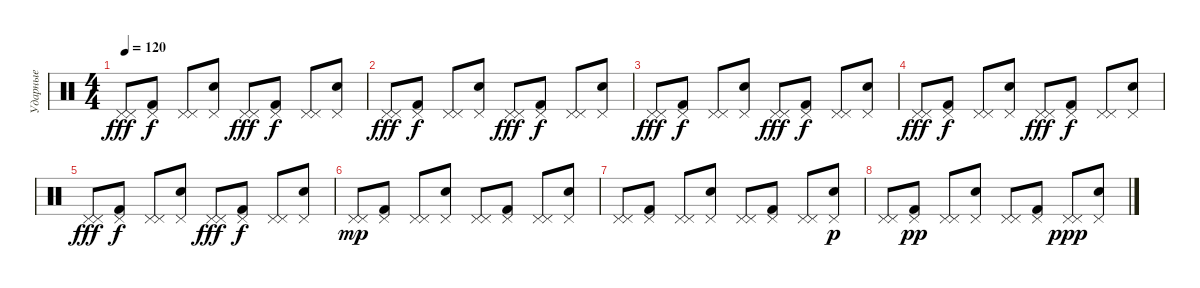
\track ("Ударные" "Ударные") {instrument percussion}
\staff {score}
\articulation defaults
\ts (4 4)
\tempo 120
\clef neutral
\ks c
("Pedal Hi-Hat (hit)" "Pedal Hi-Hat (hit)").8{dy fff} ("Pedal Hi-Hat (hit)" "Kick (hit) 2").8{dy f} ("Pedal Hi-Hat (hit)" "Pedal Hi-Hat (hit)").8 ("Pedal Hi-Hat (hit)" "Hand Clap (hit)").8 ("Pedal Hi-Hat (hit)" "Pedal Hi-Hat (hit)").8{dy fff} ("Pedal Hi-Hat (hit)" "Kick (hit) 2").8{dy f} ("Pedal Hi-Hat (hit)" "Pedal Hi-Hat (hit)").8 ("Pedal Hi-Hat (hit)" "Hand Clap (hit)").8 |
("Pedal Hi-Hat (hit)" "Pedal Hi-Hat (hit)").8{dy fff} ("Pedal Hi-Hat (hit)" "Kick (hit) 2").8{dy f} ("Pedal Hi-Hat (hit)" "Pedal Hi-Hat (hit)").8 ("Pedal Hi-Hat (hit)" "Hand Clap (hit)").8 ("Pedal Hi-Hat (hit)" "Pedal Hi-Hat (hit)").8{dy fff} ("Pedal Hi-Hat (hit)" "Kick (hit) 2").8{dy f} ("Pedal Hi-Hat (hit)" "Pedal Hi-Hat (hit)").8 ("Pedal Hi-Hat (hit)" "Hand Clap (hit)").8 |
("Pedal Hi-Hat (hit)" "Pedal Hi-Hat (hit)").8{dy fff} ("Pedal Hi-Hat (hit)" "Kick (hit) 2").8{dy f} ("Pedal Hi-Hat (hit)" "Pedal Hi-Hat (hit)").8 ("Pedal Hi-Hat (hit)" "Hand Clap (hit)").8 ("Pedal Hi-Hat (hit)" "Pedal Hi-Hat (hit)").8{dy fff} ("Pedal Hi-Hat (hit)" "Kick (hit) 2").8{dy f} ("Pedal Hi-Hat (hit)" "Pedal Hi-Hat (hit)").8 ("Pedal Hi-Hat (hit)" "Hand Clap (hit)").8 |
("Pedal Hi-Hat (hit)" "Pedal Hi-Hat (hit)").8{dy fff} ("Pedal Hi-Hat (hit)" "Kick (hit) 2").8{dy f} ("Pedal Hi-Hat (hit)" "Pedal Hi-Hat (hit)").8 ("Pedal Hi-Hat (hit)" "Hand Clap (hit)").8 ("Pedal Hi-Hat (hit)" "Pedal Hi-Hat (hit)").8{dy fff} ("Pedal Hi-Hat (hit)" "Kick (hit) 2").8{dy f} ("Pedal Hi-Hat (hit)" "Pedal Hi-Hat (hit)").8 ("Pedal Hi-Hat (hit)" "Hand Clap (hit)").8 |
("Pedal Hi-Hat (hit)" "Pedal Hi-Hat (hit)").8{dy fff} ("Pedal Hi-Hat (hit)" "Kick (hit) 2").8{dy f} ("Pedal Hi-Hat (hit)" "Pedal Hi-Hat (hit)").8 ("Pedal Hi-Hat (hit)" "Hand Clap (hit)").8 ("Pedal Hi-Hat (hit)" "Pedal Hi-Hat (hit)").8{dy fff} ("Pedal Hi-Hat (hit)" "Kick (hit) 2").8{dy f} ("Pedal Hi-Hat (hit)" "Pedal Hi-Hat (hit)").8 ("Pedal Hi-Hat (hit)" "Hand Clap (hit)").8 |
("Pedal Hi-Hat (hit)" "Pedal Hi-Hat (hit)").8{dy mp} ("Pedal Hi-Hat (hit)" "Kick (hit) 2").8 ("Pedal Hi-Hat (hit)" "Pedal Hi-Hat (hit)").8 ("Pedal Hi-Hat (hit)" "Hand Clap (hit)").8 ("Pedal Hi-Hat (hit)" "Pedal Hi-Hat (hit)").8 ("Pedal Hi-Hat (hit)" "Kick (hit) 2").8 ("Pedal Hi-Hat (hit)" "Pedal Hi-Hat (hit)").8 ("Pedal Hi-Hat (hit)" "Hand Clap (hit)").8 |
("Pedal Hi-Hat (hit)" "Pedal Hi-Hat (hit)").8 ("Pedal Hi-Hat (hit)" "Kick (hit) 2").8 ("Pedal Hi-Hat (hit)" "Pedal Hi-Hat (hit)").8 ("Pedal Hi-Hat (hit)" "Hand Clap (hit)").8 ("Pedal Hi-Hat (hit)" "Pedal Hi-Hat (hit)").8 ("Pedal Hi-Hat (hit)" "Kick (hit) 2").8 ("Pedal Hi-Hat (hit)" "Pedal Hi-Hat (hit)").8 ("Pedal Hi-Hat (hit)" "Hand Clap (hit)").8{dy p} |
("Pedal Hi-Hat (hit)" "Pedal Hi-Hat (hit)").8 ("Pedal Hi-Hat (hit)" "Kick (hit) 2").8{dy pp} ("Pedal Hi-Hat (hit)" "Pedal Hi-Hat (hit)").8 ("Pedal Hi-Hat (hit)" "Hand Clap (hit)").8 ("Pedal Hi-Hat (hit)" "Pedal Hi-Hat (hit)").8 ("Pedal Hi-Hat (hit)" "Kick (hit) 2").8 ("Pedal Hi-Hat (hit)" "Pedal Hi-Hat (hit)").8{dy ppp} ("Pedal Hi-Hat (hit)" "Hand Clap (hit)").8
